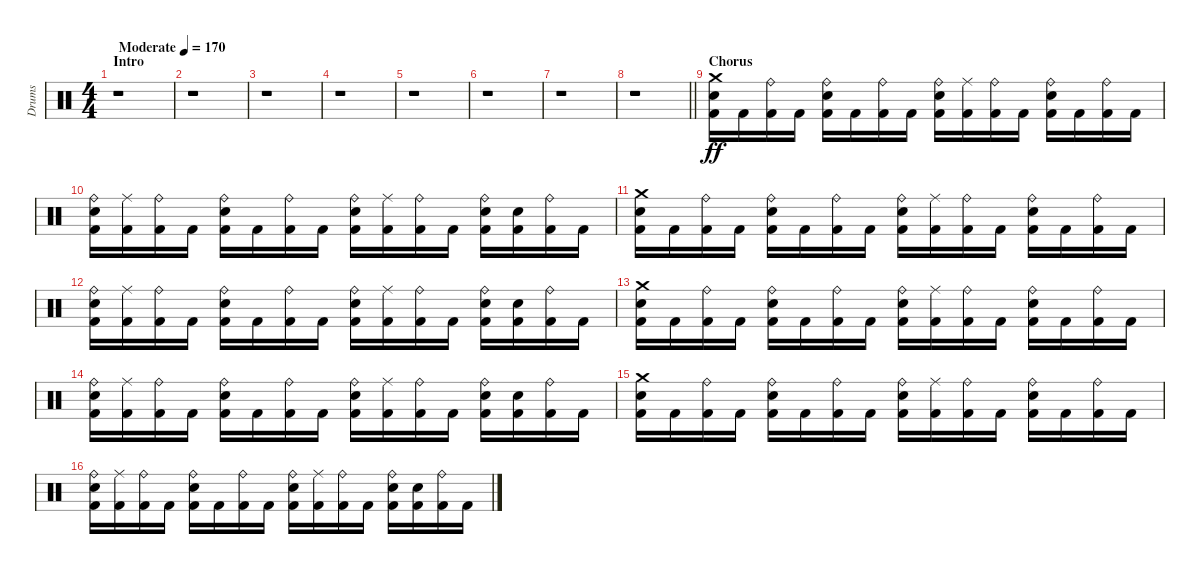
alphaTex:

\track ("Drums" "Drums") {instrument percussion}
\staff {score}
\articulation defaults
\ts (4 4)
\section ("" "Intro")
\tempo (170 "Moderate")
\clef neutral
\ks c
r.1{dy ff} |
r.1 |
r.1 |
r.1 |
r.1 |
r.1 |
r.1 |
\barLineRight lightlight
r.1 |
\section ("" "Chorus")
("Crash medium (hit)" "Kick (hit) 2" "Snare (hit) 2").16 "Kick (hit) 2".16 ("Kick (hit) 2" "Ride (bell)").16 "Kick (hit) 2".16 ("Kick (hit) 2" "Snare (hit) 2" "Ride (bell)").16 "Kick (hit) 2".16 ("Kick (hit) 2" "Ride (bell)").16 "Kick (hit) 2".16 ("Kick (hit) 2" "Snare (hit) 2" "Ride (bell)").16 ("Kick (hit) 2" "Ride (middle)").16 ("Kick (hit) 2" "Ride (bell)").16 "Kick (hit) 2".16 ("Kick (hit) 2" "Snare (hit) 2" "Ride (bell)").16 "Kick (hit) 2".16 ("Kick (hit) 2" "Ride (bell)").16 "Kick (hit) 2".16 |
("Kick (hit) 2" "Snare (hit) 2" "Ride (bell)").16 ("Kick (hit) 2" "Ride (middle)").16 ("Kick (hit) 2" "Ride (bell)").16 "Kick (hit) 2".16 ("Kick (hit) 2" "Snare (hit) 2" "Ride (bell)").16 "Kick (hit) 2".16 ("Kick (hit) 2" "Ride (bell)").16 "Kick (hit) 2".16 ("Kick (hit) 2" "Snare (hit) 2" "Ride (bell)").16 ("Kick (hit) 2" "Ride (middle)").16 ("Kick (hit) 2" "Ride (bell)").16 "Kick (hit) 2".16 ("Kick (hit) 2" "Snare (hit) 2" "Ride (bell)").16 ("Kick (hit) 2" "Snare (hit) 2").16 ("Kick (hit) 2" "Ride (bell)").16 "Kick (hit) 2".16 |
("Crash medium (hit)" "Kick (hit) 2" "Snare (hit) 2").16 "Kick (hit) 2".16 ("Kick (hit) 2" "Ride (bell)").16 "Kick (hit) 2".16 ("Kick (hit) 2" "Snare (hit) 2" "Ride (bell)").16 "Kick (hit) 2".16 ("Kick (hit) 2" "Ride (bell)").16 "Kick (hit) 2".16 ("Kick (hit) 2" "Snare (hit) 2" "Ride (bell)").16 ("Kick (hit) 2" "Ride (middle)").16 ("Kick (hit) 2" "Ride (bell)").16 "Kick (hit) 2".16 ("Kick (hit) 2" "Snare (hit) 2" "Ride (bell)").16 "Kick (hit) 2".16 ("Kick (hit) 2" "Ride (bell)").16 "Kick (hit) 2".16 |
("Kick (hit) 2" "Snare (hit) 2" "Ride (bell)").16 ("Kick (hit) 2" "Ride (middle)").16 ("Kick (hit) 2" "Ride (bell)").16 "Kick (hit) 2".16 ("Kick (hit) 2" "Snare (hit) 2" "Ride (bell)").16 "Kick (hit) 2".16 ("Kick (hit) 2" "Ride (bell)").16 "Kick (hit) 2".16 ("Kick (hit) 2" "Snare (hit) 2" "Ride (bell)").16 ("Kick (hit) 2" "Ride (middle)").16 ("Kick (hit) 2" "Ride (bell)").16 "Kick (hit) 2".16 ("Kick (hit) 2" "Snare (hit) 2" "Ride (bell)").16 ("Kick (hit) 2" "Snare (hit) 2").16 ("Kick (hit) 2" "Ride (bell)").16 "Kick (hit) 2".16 |
("Crash medium (hit)" "Kick (hit) 2" "Snare (hit) 2").16 "Kick (hit) 2".16 ("Kick (hit) 2" "Ride (bell)").16 "Kick (hit) 2".16 ("Kick (hit) 2" "Snare (hit) 2" "Ride (bell)").16 "Kick (hit) 2".16 ("Kick (hit) 2" "Ride (bell)").16 "Kick (hit) 2".16 ("Kick (hit) 2" "Snare (hit) 2" "Ride (bell)").16 ("Kick (hit) 2" "Ride (middle)").16 ("Kick (hit) 2" "Ride (bell)").16 "Kick (hit) 2".16 ("Kick (hit) 2" "Snare (hit) 2" "Ride (bell)").16 "Kick (hit) 2".16 ("Kick (hit) 2" "Ride (bell)").16 "Kick (hit) 2".16 |
("Kick (hit) 2" "Snare (hit) 2" "Ride (bell)").16 ("Kick (hit) 2" "Ride (middle)").16 ("Kick (hit) 2" "Ride (bell)").16 "Kick (hit) 2".16 ("Kick (hit) 2" "Snare (hit) 2" "Ride (bell)").16 "Kick (hit) 2".16 ("Kick (hit) 2" "Ride (bell)").16 "Kick (hit) 2".16 ("Kick (hit) 2" "Snare (hit) 2" "Ride (bell)").16 ("Kick (hit) 2" "Ride (middle)").16 ("Kick (hit) 2" "Ride (bell)").16 "Kick (hit) 2".16 ("Kick (hit) 2" "Snare (hit) 2" "Ride (bell)").16 ("Kick (hit) 2" "Snare (hit) 2").16 ("Kick (hit) 2" "Ride (bell)").16 "Kick (hit) 2".16 |
("Crash medium (hit)" "Kick (hit) 2" "Snare (hit) 2").16 "Kick (hit) 2".16 ("Kick (hit) 2" "Ride (bell)").16 "Kick (hit) 2".16 ("Kick (hit) 2" "Snare (hit) 2" "Ride (bell)").16 "Kick (hit) 2".16 ("Kick (hit) 2" "Ride (bell)").16 "Kick (hit) 2".16 ("Kick (hit) 2" "Snare (hit) 2" "Ride (bell)").16 ("Kick (hit) 2" "Ride (middle)").16 ("Kick (hit) 2" "Ride (bell)").16 "Kick (hit) 2".16 ("Kick (hit) 2" "Snare (hit) 2" "Ride (bell)").16 "Kick (hit) 2".16 ("Kick (hit) 2" "Ride (bell)").16 "Kick (hit) 2".16 |
("Kick (hit) 2" "Snare (hit) 2" "Ride (bell)").16 ("Kick (hit) 2" "Ride (middle)").16 ("Kick (hit) 2" "Ride (bell)").16 "Kick (hit) 2".16 ("Kick (hit) 2" "Snare (hit) 2" "Ride (bell)").16 "Kick (hit) 2".16 ("Kick (hit) 2" "Ride (bell)").16 "Kick (hit) 2".16 ("Kick (hit) 2" "Snare (hit) 2" "Ride (bell)").16 ("Kick (hit) 2" "Ride (middle)").16 ("Kick (hit) 2" "Ride (bell)").16 "Kick (hit) 2".16 ("Kick (hit) 2" "Snare (hit) 2" "Ride (bell)").16 ("Kick (hit) 2" "Snare (hit) 2").16 ("Kick (hit) 2" "Ride (bell)").16 "Kick (hit) 2".16
